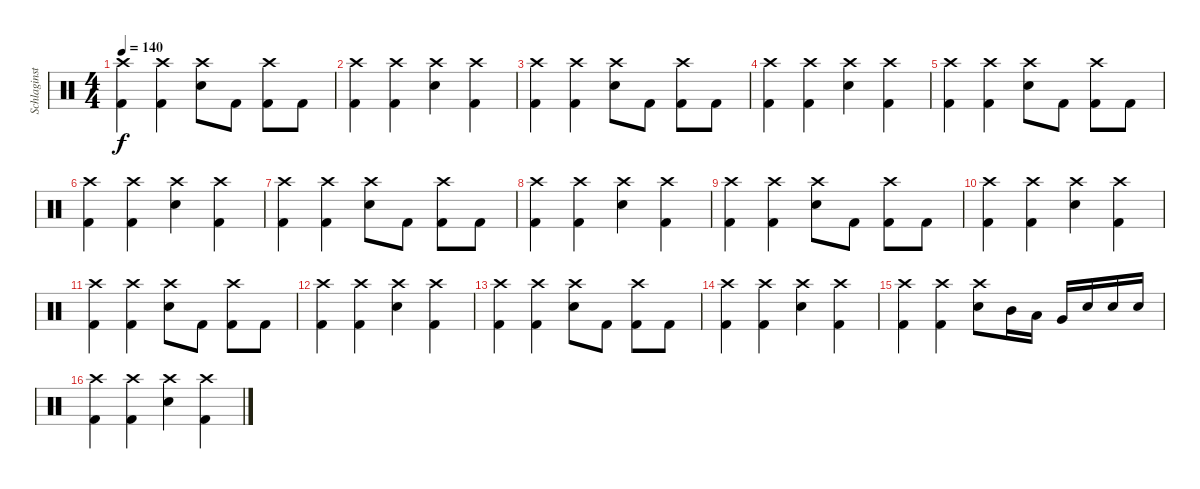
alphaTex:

\track ("Schlaginstrumente - Auswahl" "Schlaginst") {instrument percussion}
\staff {score}
\articulation defaults
\ts (4 4)
\tempo 140
\clef neutral
\ks c
("Crash high (hit)" "Kick (hit) 2").4{dy f} ("Crash high (hit)" "Kick (hit) 2").4 ("Crash high (hit)" "Electric Snare (hit)").8 "Kick (hit) 2".8 ("Crash high (hit)" "Kick (hit) 2").8 "Kick (hit) 2".8 |
("Crash high (hit)" "Kick (hit) 2").4 ("Crash high (hit)" "Kick (hit) 2").4 ("Crash high (hit)" "Electric Snare (hit)").4 ("Crash high (hit)" "Kick (hit) 2").4 |
("Crash high (hit)" "Kick (hit) 2").4 ("Crash high (hit)" "Kick (hit) 2").4 ("Crash high (hit)" "Electric Snare (hit)").8 "Kick (hit) 2".8 ("Crash high (hit)" "Kick (hit) 2").8 "Kick (hit) 2".8 |
("Crash high (hit)" "Kick (hit) 2").4 ("Crash high (hit)" "Kick (hit) 2").4 ("Crash high (hit)" "Electric Snare (hit)").4 ("Crash high (hit)" "Kick (hit) 2").4 |
("Crash high (hit)" "Kick (hit) 2").4 ("Crash high (hit)" "Kick (hit) 2").4 ("Crash high (hit)" "Electric Snare (hit)").8 "Kick (hit) 2".8 ("Crash high (hit)" "Kick (hit) 2").8 "Kick (hit) 2".8 |
("Crash high (hit)" "Kick (hit) 2").4 ("Crash high (hit)" "Kick (hit) 2").4 ("Crash high (hit)" "Electric Snare (hit)").4 ("Crash high (hit)" "Kick (hit) 2").4 |
("Crash high (hit)" "Kick (hit) 2").4 ("Crash high (hit)" "Kick (hit) 2").4 ("Crash high (hit)" "Electric Snare (hit)").8 "Kick (hit) 2".8 ("Crash high (hit)" "Kick (hit) 2").8 "Kick (hit) 2".8 |
("Crash high (hit)" "Kick (hit) 2").4 ("Crash high (hit)" "Kick (hit) 2").4 ("Crash high (hit)" "Electric Snare (hit)").4 ("Crash high (hit)" "Kick (hit) 2").4 |
("Crash high (hit)" "Kick (hit) 2").4 ("Crash high (hit)" "Kick (hit) 2").4 ("Crash high (hit)" "Electric Snare (hit)").8 "Kick (hit) 2".8 ("Crash high (hit)" "Kick (hit) 2").8 "Kick (hit) 2".8 |
("Crash high (hit)" "Kick (hit) 2").4 ("Crash high (hit)" "Kick (hit) 2").4 ("Crash high (hit)" "Electric Snare (hit)").4 ("Crash high (hit)" "Kick (hit) 2").4 |
("Crash high (hit)" "Kick (hit) 2").4 ("Crash high (hit)" "Kick (hit) 2").4 ("Crash high (hit)" "Electric Snare (hit)").8 "Kick (hit) 2".8 ("Crash high (hit)" "Kick (hit) 2").8 "Kick (hit) 2".8 |
("Crash high (hit)" "Kick (hit) 2").4 ("Crash high (hit)" "Kick (hit) 2").4 ("Crash high (hit)" "Electric Snare (hit)").4 ("Crash high (hit)" "Kick (hit) 2").4 |
("Crash high (hit)" "Kick (hit) 2").4 ("Crash high (hit)" "Kick (hit) 2").4 ("Crash high (hit)" "Electric Snare (hit)").8 "Kick (hit) 2".8 ("Crash high (hit)" "Kick (hit) 2").8 "Kick (hit) 2".8 |
("Crash high (hit)" "Kick (hit) 2").4 ("Crash high (hit)" "Kick (hit) 2").4 ("Crash high (hit)" "Electric Snare (hit)").4 ("Crash high (hit)" "Kick (hit) 2").4 |
("Crash high (hit)" "Kick (hit) 2").4 ("Crash high (hit)" "Kick (hit) 2").4 ("Crash high (hit)" "Electric Snare (hit)").8 "Mid Tom (hit)".16 "Low Tom (hit)".16 "Very Low Tom (hit)".16 "Electric Snare (hit)".16 "Electric Snare (hit)".16 "Electric Snare (hit)".16 |
("Crash high (hit)" "Kick (hit) 2").4 ("Crash high (hit)" "Kick (hit) 2").4 ("Crash high (hit)" "Electric Snare (hit)").4 ("Crash high (hit)" "Kick (hit) 2").4
